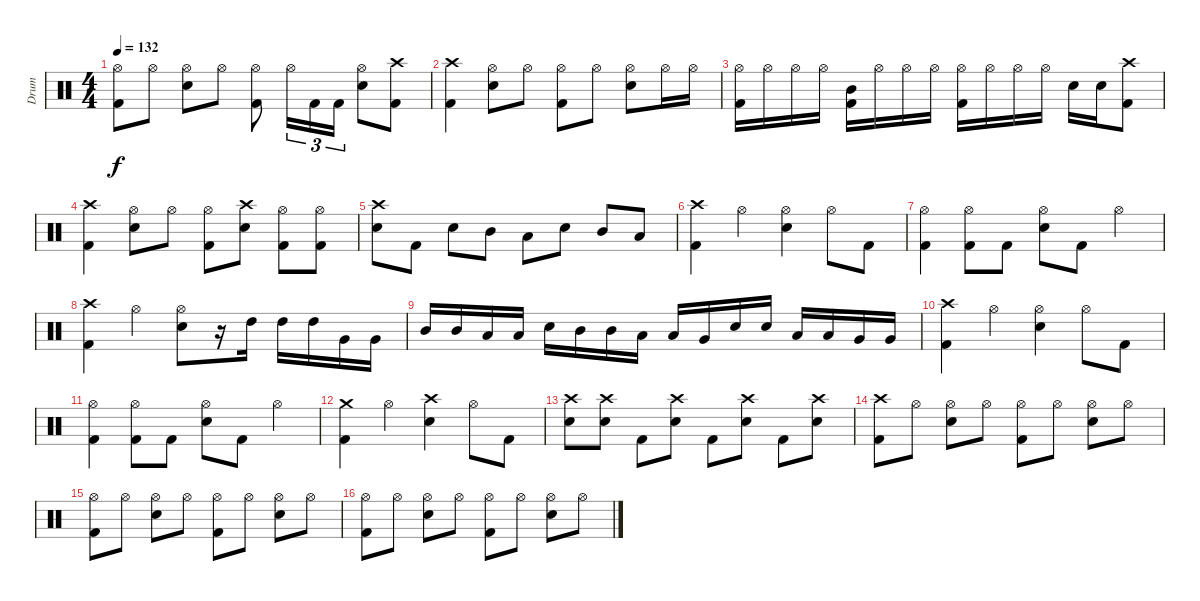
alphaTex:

\track ("Drum" "Drum") {instrument percussion}
\staff {score}
\articulation defaults
\ts (4 4)
\tempo 132
\clef neutral
\ks c
("Hi-Hat (open)" "Kick (hit) 2").8{dy f} "Hi-Hat (open)".8 ("Hi-Hat (open)" "Snare (hit) 2").8 "Hi-Hat (open)".8 ("Hi-Hat (open)" "Kick (hit) 2").8 "Hi-Hat (open)".16{tu (3 2)} "Kick (hit) 2".16{tu (3 2)} "Kick (hit) 2".16{tu (3 2)} ("Hi-Hat (open)" "Snare (hit) 2").8 ("Crash high (hit)" "Kick (hit) 2").8 |
("Crash high (hit)" "Kick (hit) 2").4 ("Hi-Hat (open)" "Snare (hit) 2").8 "Hi-Hat (open)".8 ("Hi-Hat (open)" "Kick (hit) 2").8 "Hi-Hat (open)".8 ("Hi-Hat (open)" "Snare (hit) 2").8 "Hi-Hat (open)".16 "Hi-Hat (open)".16 |
("Hi-Hat (open)" "Kick (hit) 2").16 "Hi-Hat (open)".16 "Hi-Hat (open)".16 "Hi-Hat (open)".16 ("Mid Tom (hit)" "Kick (hit) 2").16 "Hi-Hat (open)".16 "Hi-Hat (open)".16 "Hi-Hat (open)".16 ("Hi-Hat (open)" "Kick (hit) 2").16 "Hi-Hat (open)".16 "Hi-Hat (open)".16 "Hi-Hat (open)".16 "Snare (hit) 2".16 "Snare (hit) 2".16 ("Crash high (hit)" "Kick (hit) 2").8 |
("Crash high (hit)" "Kick (hit) 2").4 ("Hi-Hat (open)" "Snare (hit) 2").8 "Hi-Hat (open)".8 ("Hi-Hat (open)" "Kick (hit) 2").8 ("Crash high (hit)" "Snare (hit) 2").8 ("Hi-Hat (open)" "Kick (hit) 2").8 ("Hi-Hat (open)" "Kick (hit) 2").8 |
("Crash high (hit)" "Snare (hit) 2").8 "Kick (hit) 2".8 "Snare (hit) 2".8 "Mid Tom (hit)".8 "Low Tom (hit)".8 "Snare (hit) 2".8 "Mid Tom (hit)".8 "Low Tom (hit)".8 |
("Crash high (hit)" "Kick (hit) 2").4 "Hi-Hat (open)".4 ("Hi-Hat (open)" "Snare (hit) 2").4 "Hi-Hat (open)".8 "Kick (hit) 2".8 |
("Hi-Hat (open)" "Kick (hit) 2").4 ("Hi-Hat (open)" "Kick (hit) 2").8 "Kick (hit) 2".8 ("Hi-Hat (open)" "Snare (hit) 2").8 "Kick (hit) 2".8 "Hi-Hat (open)".4 |
("Crash high (hit)" "Kick (hit) 2").4 "Hi-Hat (open)".4 ("Hi-Hat (open)" "Snare (hit) 2").8 r.16 "High Tom (hit)".16 "High Tom (hit)".16 "High Tom (hit)".16 "Very Low Tom (hit)".16 "Very Low Tom (hit)".16 |
"Mid Tom (hit)".16 "Mid Tom (hit)".16 "Low Tom (hit)".16 "Low Tom (hit)".16 "Snare (hit) 2".16 "Mid Tom (hit)".16 "Mid Tom (hit)".16 "Low Tom (hit)".16 "Low Tom (hit)".16 "Very Low Tom (hit)".16 "Snare (hit) 2".16 "Snare (hit) 2".16 "Low Tom (hit)".16 "Low Tom (hit)".16 "Very Low Tom (hit)".16 "Very Low Tom (hit)".16 |
("Crash high (hit)" "Kick (hit) 2").4 "Hi-Hat (open)".4 ("Hi-Hat (open)" "Snare (hit) 2").4 "Hi-Hat (open)".8 "Kick (hit) 2".8 |
("Hi-Hat (open)" "Kick (hit) 2").4 ("Hi-Hat (open)" "Kick (hit) 2").8 "Kick (hit) 2".8 ("Hi-Hat (open)" "Snare (hit) 2").8 "Kick (hit) 2".8 "Hi-Hat (open)".4 |
("Crash medium (hit)" "Kick (hit) 2").4 "Hi-Hat (open)".4 ("Crash high (hit)" "Snare (hit) 2").4 "Hi-Hat (open)".8 "Kick (hit) 2".8 |
("Crash high (hit)" "Snare (hit) 2").8 ("Crash high (hit)" "Snare (hit) 2").8 "Kick (hit) 2".8 ("Crash high (hit)" "Snare (hit) 2").8 "Kick (hit) 2".8 ("Crash high (hit)" "Snare (hit) 2").8 "Kick (hit) 2".8 ("Crash high (hit)" "Snare (hit) 2").8 |
("Crash high (hit)" "Kick (hit) 2").8 "Hi-Hat (open)".8 ("Hi-Hat (open)" "Snare (hit) 2").8 "Hi-Hat (open)".8 ("Hi-Hat (open)" "Kick (hit) 2").8 "Hi-Hat (open)".8 ("Hi-Hat (open)" "Snare (hit) 2").8 "Hi-Hat (open)".8 |
("Hi-Hat (open)" "Kick (hit) 2").8 "Hi-Hat (open)".8 ("Hi-Hat (open)" "Snare (hit) 2").8 "Hi-Hat (open)".8 ("Hi-Hat (open)" "Kick (hit) 2").8 "Hi-Hat (open)".8 ("Hi-Hat (open)" "Snare (hit) 2").8 "Hi-Hat (open)".8 |
("Hi-Hat (open)" "Kick (hit) 2").8 "Hi-Hat (open)".8 ("Hi-Hat (open)" "Snare (hit) 2").8 "Hi-Hat (open)".8 ("Hi-Hat (open)" "Kick (hit) 2").8 "Hi-Hat (open)".8 ("Hi-Hat (open)" "Snare (hit) 2").8 "Hi-Hat (open)".8
